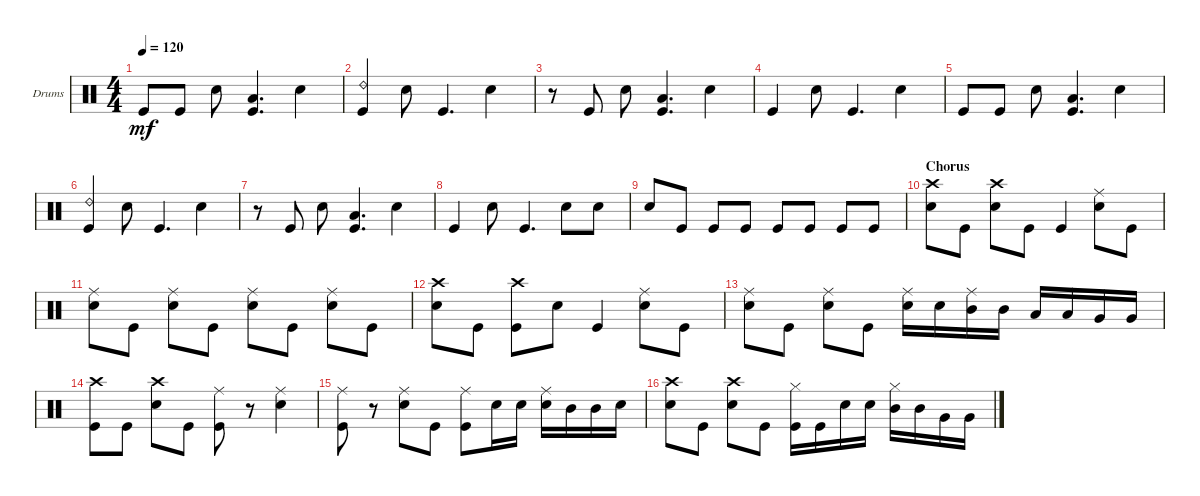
\defaultSystemsLayout 4
\bracketExtendMode groupsimilarinstruments
\firstSystemTrackNameOrientation horizontal
\otherSystemsTrackNameOrientation horizontal
\track ("Drumkit" "Drums") {instrument percussion}
\staff {score}
\articulation defaults
\ts (4 4)
\tempo 120
\clef neutral
\ks c "Kick (hit)".8{dy mf} "Kick (hit)".8 "Snare (hit) 2".8
("Kick (hit)" "Low Tom (hit)").4{d} "Snare (hit) 2".4 |
("Ride (bell) 2" "Kick (hit)").4 "Snare (hit) 2".8 "Kick (hit)".4{d} "Snare (hit) 2".4 |
r.8 "Kick (hit)".8 "Snare (hit) 2".8 ("Kick (hit)" "Low Tom (hit)").4{d} "Snare (hit) 2".4 |
"Kick (hit)".4 "Snare (hit) 2".8 "Kick (hit)".4{d} "Snare (hit) 2".4 |
"Kick (hit)".8 "Kick (hit)".8 "Snare (hit) 2".8 ("Kick (hit)" "Low Tom (hit)").4{d} "Snare (hit) 2".4 |
("Ride (bell) 2" "Kick (hit)").4 "Snare (hit) 2".8 "Kick (hit)".4{d} "Snare (hit) 2".4 |
r.8 "Kick (hit)".8 "Snare (hit) 2".8 ("Kick (hit)" "Low Tom (hit)").4{d} "Snare (hit) 2".4 |
"Kick (hit)".4 "Snare (hit) 2".8 "Kick (hit)".4{d} "Snare (hit) 2".8 "Snare (hit) 2".8 |
"Snare (hit) 2".8 "Kick (hit)".8 "Kick (hit)".8 "Kick (hit)".8 "Kick (hit)".8 "Kick (hit)".8 "Kick (hit)".8 "Kick (hit)".8 |
\section ("" "Chorus")
("Snare (hit) 2" "Crash high (hit)").8 "Kick (hit)".8 ("Snare (hit) 2" "Crash high (hit)").8 "Kick (hit)".8 "Kick (hit)".4 ("Snare (hit) 2" "Ride (middle)").8 "Kick (hit)".8 |
("Snare (hit) 2" "Ride (middle)").8 "Kick (hit)".8 ("Snare (hit) 2" "Ride (middle)").8 "Kick (hit)".8 ("Snare (hit) 2" "Ride (middle)").8 "Kick (hit)".8 ("Snare (hit) 2" "Ride (middle)").8 "Kick (hit)".8 |
("Snare (hit) 2" "Crash high (hit)").8 "Kick (hit)".8 ("Crash high (hit)" "Kick (hit)").8 "Snare (hit) 2".8 "Kick (hit)".4 ("Snare (hit) 2" "Ride (middle)").8 "Kick (hit)".8 |
("Snare (hit) 2" "Ride (middle)").8 "Kick (hit)".8 ("Snare (hit) 2" "Ride (middle)").8 "Kick (hit)".8 ("Snare (hit) 2" "Ride (middle)").16 "Snare (hit) 2".16 ("Ride (middle)" "Mid Tom (hit)").16 "Mid Tom (hit)".16 "Low Tom (hit)".16 "Low Tom (hit)".16 "Very Low Tom (hit)".16 "Very Low Tom (hit)".16 |
("Crash high (hit)" "Kick (hit)").8 "Kick (hit)".8 ("Snare (hit) 2" "Crash high (hit)").8 "Kick (hit)".8 ("Kick (hit)" "Ride (middle)").8 r.8 ("Snare (hit) 2" "Ride (middle)").4 |
("Kick (hit)" "Ride (middle)").8 r.8 ("Snare (hit) 2" "Ride (middle)").8 "Kick (hit)".8 ("Kick (hit)" "Ride (middle)").8 "Snare (hit) 2".16 "Snare (hit) 2".16 ("Ride (middle)" "Snare (hit) 2").16 "Mid Tom (hit)".16 "Mid Tom (hit)".16 "Snare (hit) 2".16 |
("Snare (hit) 2" "Crash high (hit)").8 "Kick (hit)".8 ("Snare (hit) 2" "Crash high (hit)").8 "Kick (hit)".8 ("Kick (hit)" "Hi-Hat (closed)").16 "Kick (hit)".16 "Snare (hit) 2".16 "Snare (hit) 2".16 ("Mid Tom (hit)" "Hi-Hat (closed)").16 "Mid Tom (hit)".16 "Very Low Tom (hit)".16 "Very Low Tom (hit)".16
